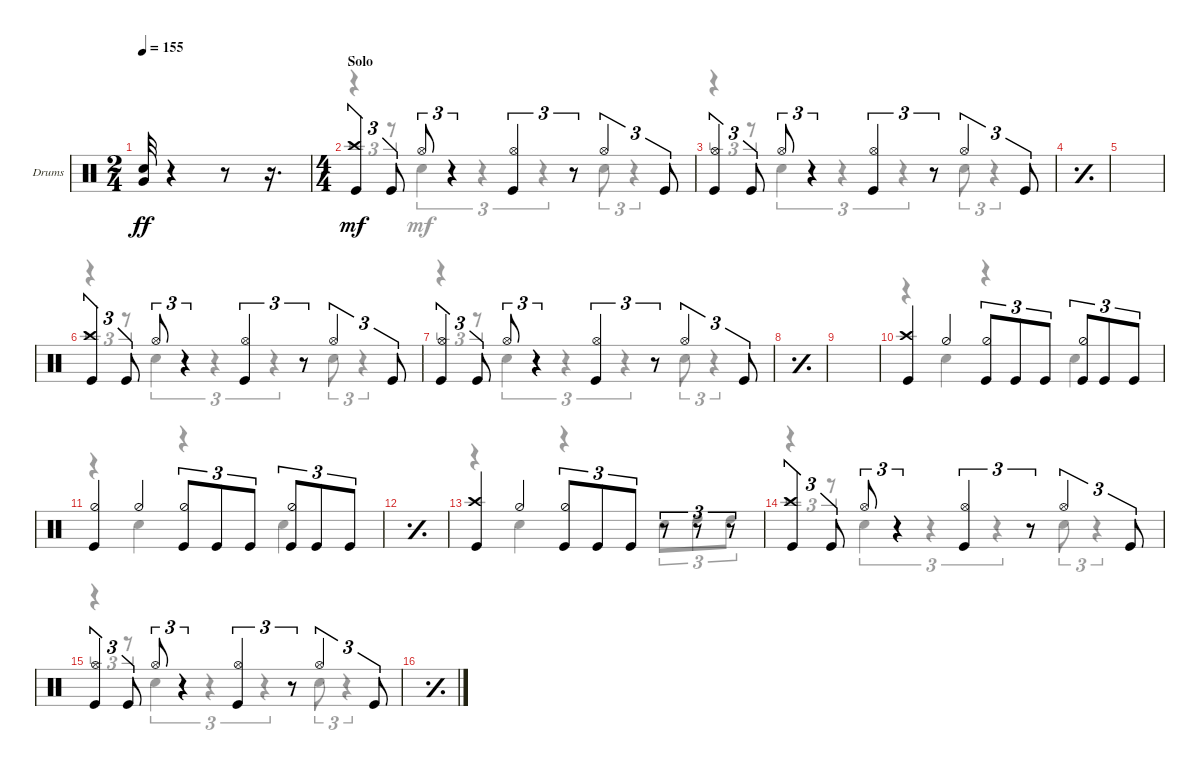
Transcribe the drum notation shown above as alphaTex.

\defaultSystemsLayout 4
\bracketExtendMode groupsimilarinstruments
\firstSystemTrackNameOrientation horizontal
\otherSystemsTrackNameOrientation horizontal
\track ("Drumkit" "Drums") {instrument percussion}
\staff {score}
\articulation defaults
\voice
\ts (2 4)
\tempo 155
\clef neutral
\ks c
("Snare (hit) 2" "Very Low Tom (hit)").32{dy ff} r.4 r.8 r.16{d} |
\ts (4 4)
\section ("" "Solo")
("Kick (hit)" "Crash high (hit)").4{tu (3 2) dy mf} "Kick (hit)".8{tu (3 2)} "Hi-Hat (open)".8{tu (3 2)} r.4{tu (3 2)} ("Kick (hit)" "Hi-Hat (open)").4{tu (3 2)} r.8{tu (3 2)} "Hi-Hat (open)".4{tu (3 2)} "Kick (hit)".8{tu (3 2)} |
("Kick (hit)" "Hi-Hat (open)").4{tu (3 2)} "Kick (hit)".8{tu (3 2)} "Hi-Hat (open)".8{tu (3 2)} r.4{tu (3 2)} ("Kick (hit)" "Hi-Hat (open)").4{tu (3 2)} r.8{tu (3 2)} "Hi-Hat (open)".4{tu (3 2)} "Kick (hit)".8{tu (3 2)} |
\simile simple
|
|
\simile none
("Kick (hit)" "Crash high (hit)").4{tu (3 2)} "Kick (hit)".8{tu (3 2)} "Hi-Hat (open)".8{tu (3 2)} r.4{tu (3 2)} ("Kick (hit)" "Hi-Hat (open)").4{tu (3 2)} r.8{tu (3 2)} "Hi-Hat (open)".4{tu (3 2)} "Kick (hit)".8{tu (3 2)} |
("Kick (hit)" "Hi-Hat (open)").4{tu (3 2)} "Kick (hit)".8{tu (3 2)} "Hi-Hat (open)".8{tu (3 2)} r.4{tu (3 2)} ("Kick (hit)" "Hi-Hat (open)").4{tu (3 2)} r.8{tu (3 2)} "Hi-Hat (open)".4{tu (3 2)} "Kick (hit)".8{tu (3 2)} |
\simile simple
|
|
\simile none
("Kick (hit)" "Crash high (hit)").4 "Hi-Hat (half)".4 ("Kick (hit)" "Hi-Hat (half)").8{tu (3 2)} "Kick (hit)".8{tu (3 2)} "Kick (hit)".8{tu (3 2)} ("Kick (hit)" "Hi-Hat (half)").8{tu (3 2)} "Kick (hit)".8{tu (3 2)} "Kick (hit)".8{tu (3 2)} |
("Kick (hit)" "Hi-Hat (half)").4 "Hi-Hat (half)".4 ("Kick (hit)" "Hi-Hat (half)").8{tu (3 2)} "Kick (hit)".8{tu (3 2)} "Kick (hit)".8{tu (3 2)} ("Kick (hit)" "Hi-Hat (half)").8{tu (3 2)} "Kick (hit)".8{tu (3 2)} "Kick (hit)".8{tu (3 2)} |
\simile simple
|
\simile none
("Kick (hit)" "Crash high (hit)").4 "Hi-Hat (half)".4 ("Kick (hit)" "Hi-Hat (half)").8{tu (3 2)} "Kick (hit)".8{tu (3 2)} "Kick (hit)".8{tu (3 2)} r.8{tu (3 2)} r.8{tu (3 2)} r.8{tu (3 2)} |
("Kick (hit)" "Crash high (hit)").4{tu (3 2)} "Kick (hit)".8{tu (3 2)} "Hi-Hat (open)".8{tu (3 2)} r.4{tu (3 2)} ("Kick (hit)" "Hi-Hat (open)").4{tu (3 2)} r.8{tu (3 2)} "Hi-Hat (open)".4{tu (3 2)} "Kick (hit)".8{tu (3 2)} |
("Kick (hit)" "Hi-Hat (open)").4{tu (3 2)} "Kick (hit)".8{tu (3 2)} "Hi-Hat (open)".8{tu (3 2)} r.4{tu (3 2)} ("Kick (hit)" "Hi-Hat (open)").4{tu (3 2)} r.8{tu (3 2)} "Hi-Hat (open)".4{tu (3 2)} "Kick (hit)".8{tu (3 2)} |
\simile simple
\voice
\clef neutral
\ottava regular
\simile none
\ks c
|
r.4{tu (3 2)} r.8{tu (3 2)} "Snare (hit) 2".4{tu (3 2)} r.4{tu (3 2)} r.4{tu (3 2)} "Snare (hit) 2".8{tu (3 2)} r.4{tu (3 2)} |
r.4{tu (3 2)} r.8{tu (3 2)} "Snare (hit) 2".4{tu (3 2)} r.4{tu (3 2)} r.4{tu (3 2)} "Snare (hit) 2".8{tu (3 2)} r.4{tu (3 2)} |
\simile simple
|
|
\simile none
r.4{tu (3 2)} r.8{tu (3 2)} "Snare (hit) 2".4{tu (3 2)} r.4{tu (3 2)} r.4{tu (3 2)} "Snare (hit) 2".8{tu (3 2)} r.4{tu (3 2)} |
r.4{tu (3 2)} r.8{tu (3 2)} "Snare (hit) 2".4{tu (3 2)} r.4{tu (3 2)} r.4{tu (3 2)} "Snare (hit) 2".8{tu (3 2)} r.4{tu (3 2)} |
\simile simple
|
|
\simile none
r.4 "Snare (hit) 2".4 r.4 "Snare (hit) 2".4 |
r.4 "Snare (hit) 2".4 r.4 "Snare (hit) 2".4 |
\simile simple
|
\simile none
r.4 "Snare (hit) 2".4 r.4 "Snare (hit) 2".8{tu (3 2)} "High Tom (hit)".8{tu (3 2)} "High Tom (hit)".8{tu (3 2)} |
r.4{tu (3 2)} r.8{tu (3 2)} "Snare (hit) 2".4{tu (3 2)} r.4{tu (3 2)} r.4{tu (3 2)} "Snare (hit) 2".8{tu (3 2)} r.4{tu (3 2)} |
r.4{tu (3 2)} r.8{tu (3 2)} "Snare (hit) 2".4{tu (3 2)} r.4{tu (3 2)} r.4{tu (3 2)} "Snare (hit) 2".8{tu (3 2)} r.4{tu (3 2)} |
\simile simple
